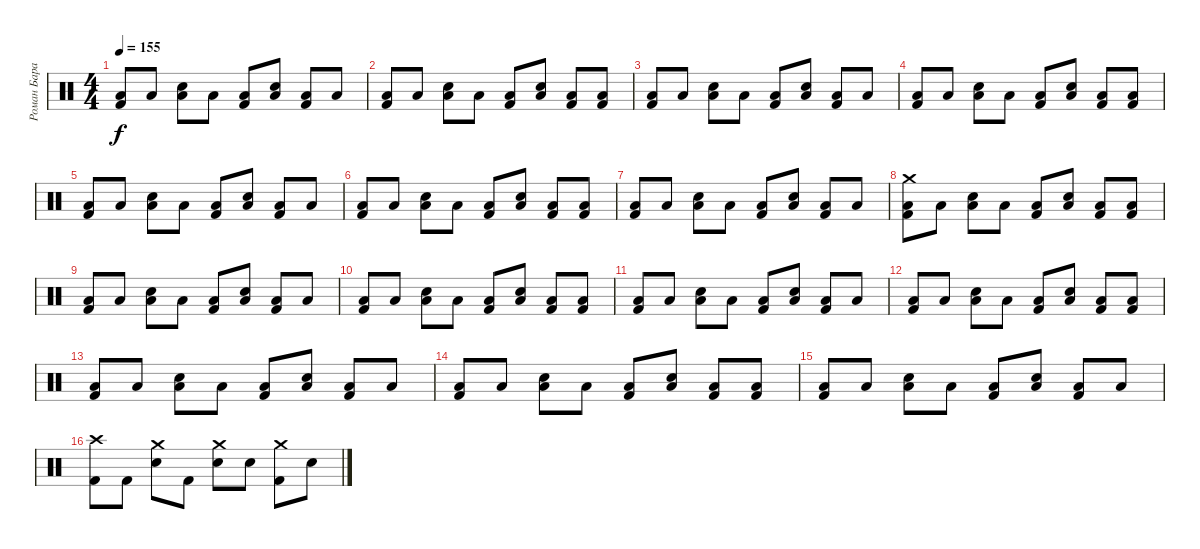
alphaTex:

\track ("Роман Баранюк (Meinl, Vic Firth, Peace)" "Роман Бара") {instrument percussion}
\staff {score}
\articulation defaults
\ts (4 4)
\tempo 155
\clef neutral
\ks c
("Low Tom (hit)" "Kick (hit) 2").8{dy f} "Low Tom (hit)".8 ("Snare (hit) 2" "Low Tom (hit)").8 "Low Tom (hit)".8 ("Low Tom (hit)" "Kick (hit) 2").8 ("Snare (hit) 2" "Low Tom (hit)").8 ("Low Tom (hit)" "Kick (hit) 2").8 "Low Tom (hit)".8 |
("Low Tom (hit)" "Kick (hit) 2").8 "Low Tom (hit)".8 ("Snare (hit) 2" "Low Tom (hit)").8 "Low Tom (hit)".8 ("Low Tom (hit)" "Kick (hit) 2").8 ("Snare (hit) 2" "Low Tom (hit)").8 ("Low Tom (hit)" "Kick (hit) 2").8 ("Low Tom (hit)" "Kick (hit) 2").8 |
("Low Tom (hit)" "Kick (hit) 2").8 "Low Tom (hit)".8 ("Snare (hit) 2" "Low Tom (hit)").8 "Low Tom (hit)".8 ("Low Tom (hit)" "Kick (hit) 2").8 ("Snare (hit) 2" "Low Tom (hit)").8 ("Low Tom (hit)" "Kick (hit) 2").8 "Low Tom (hit)".8 |
("Low Tom (hit)" "Kick (hit) 2").8 "Low Tom (hit)".8 ("Snare (hit) 2" "Low Tom (hit)").8 "Low Tom (hit)".8 ("Low Tom (hit)" "Kick (hit) 2").8 ("Snare (hit) 2" "Low Tom (hit)").8 ("Low Tom (hit)" "Kick (hit) 2").8 ("Low Tom (hit)" "Kick (hit) 2").8 |
("Low Tom (hit)" "Kick (hit) 2").8 "Low Tom (hit)".8 ("Snare (hit) 2" "Low Tom (hit)").8 "Low Tom (hit)".8 ("Low Tom (hit)" "Kick (hit) 2").8 ("Snare (hit) 2" "Low Tom (hit)").8 ("Low Tom (hit)" "Kick (hit) 2").8 "Low Tom (hit)".8 |
("Low Tom (hit)" "Kick (hit) 2").8 "Low Tom (hit)".8 ("Snare (hit) 2" "Low Tom (hit)").8 "Low Tom (hit)".8 ("Low Tom (hit)" "Kick (hit) 2").8 ("Snare (hit) 2" "Low Tom (hit)").8 ("Low Tom (hit)" "Kick (hit) 2").8 ("Low Tom (hit)" "Kick (hit) 2").8 |
("Low Tom (hit)" "Kick (hit) 2").8 "Low Tom (hit)".8 ("Snare (hit) 2" "Low Tom (hit)").8 "Low Tom (hit)".8 ("Low Tom (hit)" "Kick (hit) 2").8 ("Snare (hit) 2" "Low Tom (hit)").8 ("Low Tom (hit)" "Kick (hit) 2").8 "Low Tom (hit)".8 |
("Crash medium (hit)" "Low Tom (hit)" "Kick (hit) 2").8 "Low Tom (hit)".8 ("Snare (hit) 2" "Low Tom (hit)").8 "Low Tom (hit)".8 ("Low Tom (hit)" "Kick (hit) 2").8 ("Snare (hit) 2" "Low Tom (hit)").8 ("Low Tom (hit)" "Kick (hit) 2").8 ("Low Tom (hit)" "Kick (hit) 2").8 |
("Low Tom (hit)" "Kick (hit) 2").8 "Low Tom (hit)".8 ("Snare (hit) 2" "Low Tom (hit)").8 "Low Tom (hit)".8 ("Low Tom (hit)" "Kick (hit) 2").8 ("Snare (hit) 2" "Low Tom (hit)").8 ("Low Tom (hit)" "Kick (hit) 2").8 "Low Tom (hit)".8 |
("Low Tom (hit)" "Kick (hit) 2").8 "Low Tom (hit)".8 ("Snare (hit) 2" "Low Tom (hit)").8 "Low Tom (hit)".8 ("Low Tom (hit)" "Kick (hit) 2").8 ("Snare (hit) 2" "Low Tom (hit)").8 ("Low Tom (hit)" "Kick (hit) 2").8 ("Low Tom (hit)" "Kick (hit) 2").8 |
("Low Tom (hit)" "Kick (hit) 2").8 "Low Tom (hit)".8 ("Snare (hit) 2" "Low Tom (hit)").8 "Low Tom (hit)".8 ("Low Tom (hit)" "Kick (hit) 2").8 ("Snare (hit) 2" "Low Tom (hit)").8 ("Low Tom (hit)" "Kick (hit) 2").8 "Low Tom (hit)".8 |
("Low Tom (hit)" "Kick (hit) 2").8 "Low Tom (hit)".8 ("Snare (hit) 2" "Low Tom (hit)").8 "Low Tom (hit)".8 ("Low Tom (hit)" "Kick (hit) 2").8 ("Snare (hit) 2" "Low Tom (hit)").8 ("Low Tom (hit)" "Kick (hit) 2").8 ("Low Tom (hit)" "Kick (hit) 2").8 |
("Low Tom (hit)" "Kick (hit) 2").8 "Low Tom (hit)".8 ("Snare (hit) 2" "Low Tom (hit)").8 "Low Tom (hit)".8 ("Low Tom (hit)" "Kick (hit) 2").8 ("Snare (hit) 2" "Low Tom (hit)").8 ("Low Tom (hit)" "Kick (hit) 2").8 "Low Tom (hit)".8 |
("Low Tom (hit)" "Kick (hit) 2").8 "Low Tom (hit)".8 ("Snare (hit) 2" "Low Tom (hit)").8 "Low Tom (hit)".8 ("Low Tom (hit)" "Kick (hit) 2").8 ("Snare (hit) 2" "Low Tom (hit)").8 ("Low Tom (hit)" "Kick (hit) 2").8 ("Low Tom (hit)" "Kick (hit) 2").8 |
("Low Tom (hit)" "Kick (hit) 2").8 "Low Tom (hit)".8 ("Snare (hit) 2" "Low Tom (hit)").8 "Low Tom (hit)".8 ("Low Tom (hit)" "Kick (hit) 2").8 ("Snare (hit) 2" "Low Tom (hit)").8 ("Low Tom (hit)" "Kick (hit) 2").8 "Low Tom (hit)".8 |
("Crash high (hit)" "Kick (hit) 2").8 "Kick (hit) 2".8 ("Crash medium (hit)" "Snare (hit) 2").8 "Kick (hit) 2".8 ("Crash medium (hit)" "Snare (hit) 2").8 "Snare (hit) 2".8 ("Crash medium (hit)" "Kick (hit) 2").8 "Snare (hit) 2".8
